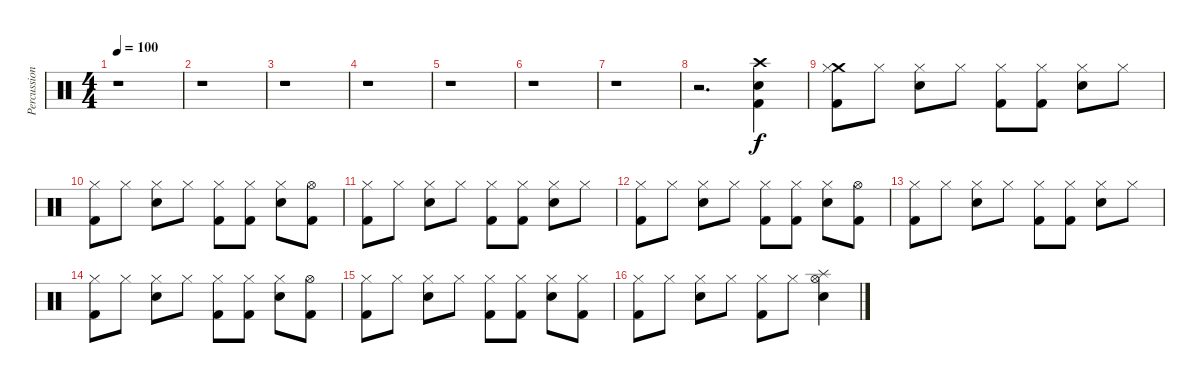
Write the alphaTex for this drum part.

\track ("Percussion" "Percussion") {instrument percussion}
\staff {score}
\articulation defaults
\ts (4 4)
\tempo 100
\clef neutral
\ks c
r.1{dy f} |
r.1 |
r.1 |
r.1 |
r.1 |
r.1 |
r.1 |
r.2{d} ("Crash high (hit)" "Snare (hit) 2" "Kick (hit) 2").4 |
("Crash medium (hit)" "Kick (hit) 2" "Hi-Hat (closed)").8 "Hi-Hat (closed)".8 ("Snare (hit) 2" "Hi-Hat (closed)").8 "Hi-Hat (closed)".8 ("Kick (hit) 2" "Hi-Hat (closed)").8 ("Kick (hit) 2" "Hi-Hat (closed)").8 ("Snare (hit) 2" "Hi-Hat (closed)").8 "Hi-Hat (closed)".8 |
("Kick (hit) 2" "Hi-Hat (closed)").8 "Hi-Hat (closed)".8 ("Snare (hit) 2" "Hi-Hat (closed)").8 "Hi-Hat (closed)".8 ("Kick (hit) 2" "Hi-Hat (closed)").8 ("Kick (hit) 2" "Hi-Hat (closed)").8 ("Snare (hit) 2" "Hi-Hat (closed)").8 ("Kick (hit) 2" "Hi-Hat (open)").8 |
("Kick (hit) 2" "Hi-Hat (closed)").8 "Hi-Hat (closed)".8 ("Snare (hit) 2" "Hi-Hat (closed)").8 "Hi-Hat (closed)".8 ("Kick (hit) 2" "Hi-Hat (closed)").8 ("Kick (hit) 2" "Hi-Hat (closed)").8 ("Snare (hit) 2" "Hi-Hat (closed)").8 "Hi-Hat (closed)".8 |
("Kick (hit) 2" "Hi-Hat (closed)").8 "Hi-Hat (closed)".8 ("Snare (hit) 2" "Hi-Hat (closed)").8 "Hi-Hat (closed)".8 ("Kick (hit) 2" "Hi-Hat (closed)").8 ("Kick (hit) 2" "Hi-Hat (closed)").8 ("Snare (hit) 2" "Hi-Hat (closed)").8 ("Kick (hit) 2" "Hi-Hat (open)").8 |
("Kick (hit) 2" "Hi-Hat (closed)").8 "Hi-Hat (closed)".8 ("Snare (hit) 2" "Hi-Hat (closed)").8 "Hi-Hat (closed)".8 ("Kick (hit) 2" "Hi-Hat (closed)").8 ("Kick (hit) 2" "Hi-Hat (closed)").8 ("Snare (hit) 2" "Hi-Hat (closed)").8 "Hi-Hat (closed)".8 |
("Kick (hit) 2" "Hi-Hat (closed)").8 "Hi-Hat (closed)".8 ("Snare (hit) 2" "Hi-Hat (closed)").8 "Hi-Hat (closed)".8 ("Kick (hit) 2" "Hi-Hat (closed)").8 ("Kick (hit) 2" "Hi-Hat (closed)").8 ("Snare (hit) 2" "Hi-Hat (closed)").8 ("Kick (hit) 2" "Hi-Hat (open)").8 |
("Kick (hit) 2" "Hi-Hat (closed)").8 "Hi-Hat (closed)".8 ("Snare (hit) 2" "Hi-Hat (closed)").8 "Hi-Hat (closed)".8 ("Kick (hit) 2" "Hi-Hat (closed)").8 ("Kick (hit) 2" "Hi-Hat (closed)").8 ("Snare (hit) 2" "Hi-Hat (closed)").8 ("Kick (hit) 2" "Hi-Hat (closed)").8 |
("Kick (hit) 2" "Hi-Hat (closed)").8 "Hi-Hat (closed)".8 ("Snare (hit) 2" "Hi-Hat (closed)").8 "Hi-Hat (closed)".8 ("Kick (hit) 2" "Hi-Hat (closed)").8 "Hi-Hat (closed)".8 ("Splash (hit)" "Snare (hit) 2" "Hi-Hat (open)").4
